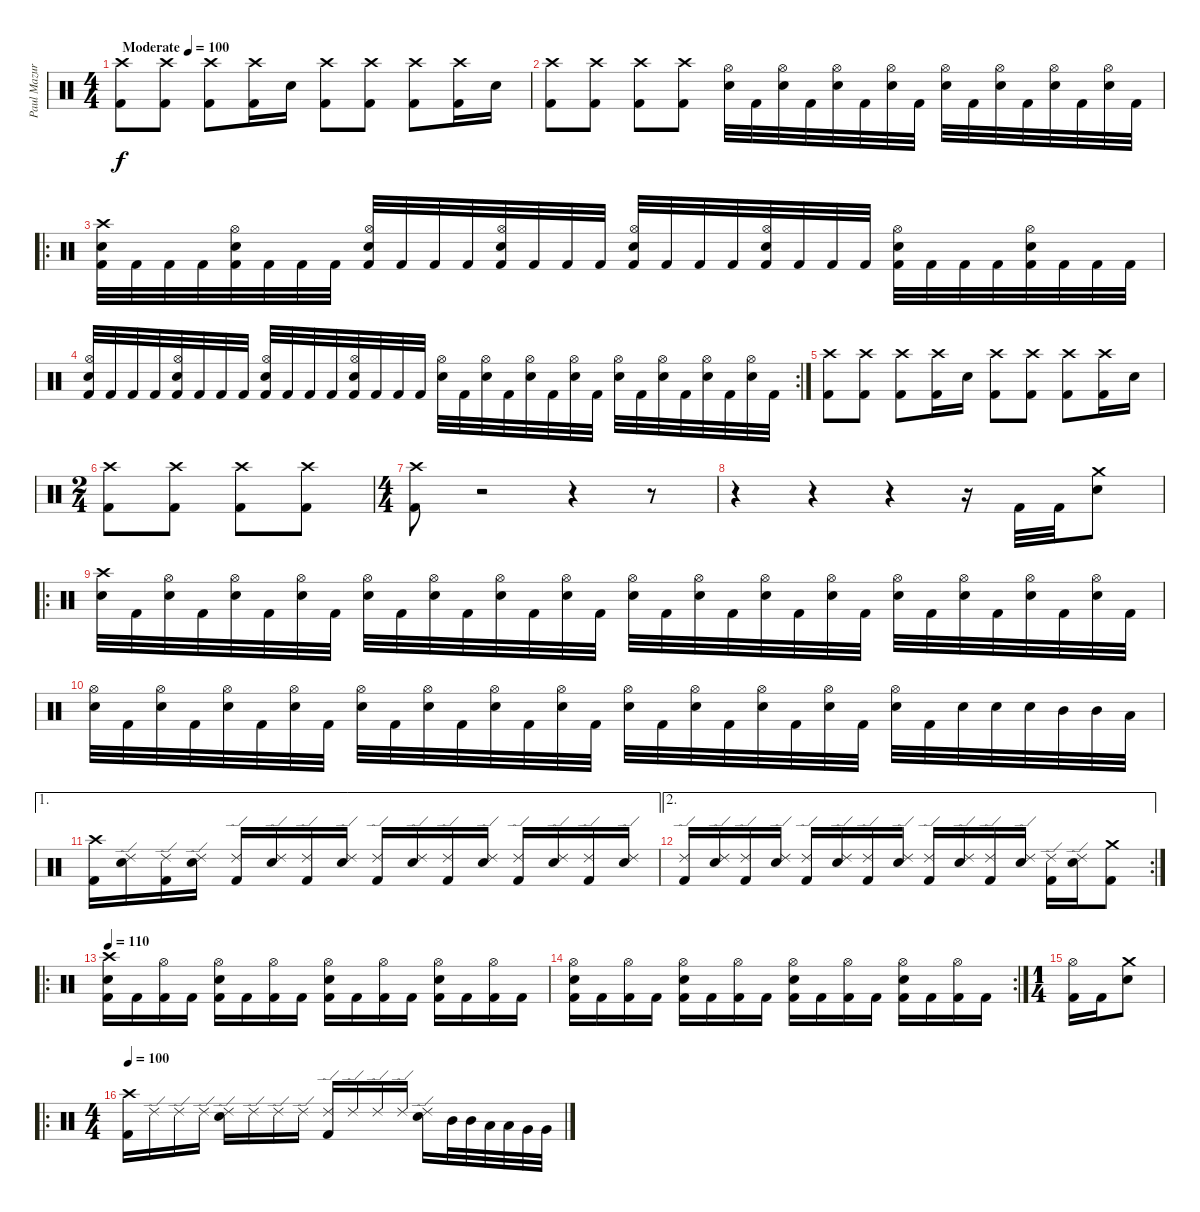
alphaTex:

\track ("Paul Mazurkievich" "Paul Mazur") {instrument percussion}
\staff {score}
\articulation defaults
\ts (4 4)
\tempo (100 "Moderate")
\clef neutral
\ks c
("Crash high (hit)" "Kick (hit) 2").8{dy f} ("Crash high (hit)" "Kick (hit) 2").8 ("Crash high (hit)" "Kick (hit) 2").8 ("Crash high (hit)" "Kick (hit) 2").16 "Electric Snare (hit)".16 ("Crash high (hit)" "Kick (hit) 2").8 ("Crash high (hit)" "Kick (hit) 2").8 ("Crash high (hit)" "Kick (hit) 2").8 ("Crash high (hit)" "Kick (hit) 2").16 "Electric Snare (hit)".16 |
("Crash high (hit)" "Kick (hit) 2").8 ("Crash high (hit)" "Kick (hit) 2").8 ("Crash high (hit)" "Kick (hit) 2").8 ("Crash high (hit)" "Kick (hit) 2").8 ("Electric Snare (hit)" "Hi-Hat (open)").32 "Kick (hit) 2".32 ("Electric Snare (hit)" "Hi-Hat (open)").32 "Kick (hit) 2".32 ("Electric Snare (hit)" "Hi-Hat (open)").32 "Kick (hit) 2".32 ("Electric Snare (hit)" "Hi-Hat (open)").32 "Kick (hit) 2".32 ("Electric Snare (hit)" "Hi-Hat (open)").32 "Kick (hit) 2".32 ("Electric Snare (hit)" "Hi-Hat (open)").32 "Kick (hit) 2".32 ("Electric Snare (hit)" "Hi-Hat (open)").32 "Kick (hit) 2".32 ("Electric Snare (hit)" "Hi-Hat (open)").32 "Kick (hit) 2".32 |
\ro
("Kick (hit) 2" "Crash high (hit)" "Snare (hit) 2").32 "Kick (hit) 2".32 "Kick (hit) 2".32 "Kick (hit) 2".32 ("Kick (hit) 2" "Snare (hit) 2" "Hi-Hat (open)").32 "Kick (hit) 2".32 "Kick (hit) 2".32 "Kick (hit) 2".32 ("Kick (hit) 2" "Snare (hit) 2" "Hi-Hat (open)").32 "Kick (hit) 2".32 "Kick (hit) 2".32 "Kick (hit) 2".32 ("Kick (hit) 2" "Snare (hit) 2" "Hi-Hat (open)").32 "Kick (hit) 2".32 "Kick (hit) 2".32 "Kick (hit) 2".32 ("Kick (hit) 2" "Snare (hit) 2" "Hi-Hat (open)").32 "Kick (hit) 2".32 "Kick (hit) 2".32 "Kick (hit) 2".32 ("Kick (hit) 2" "Snare (hit) 2" "Hi-Hat (open)").32 "Kick (hit) 2".32 "Kick (hit) 2".32 "Kick (hit) 2".32 ("Kick (hit) 2" "Electric Snare (hit)" "Hi-Hat (open)").32 "Kick (hit) 2".32 "Kick (hit) 2".32 "Kick (hit) 2".32 ("Kick (hit) 2" "Electric Snare (hit)" "Hi-Hat (open)").32 "Kick (hit) 2".32 "Kick (hit) 2".32 "Kick (hit) 2".32 |
\rc 2
("Kick (hit) 2" "Hi-Hat (open)" "Snare (hit) 2").32 "Kick (hit) 2".32 "Kick (hit) 2".32 "Kick (hit) 2".32 ("Kick (hit) 2" "Snare (hit) 2" "Hi-Hat (open)").32 "Kick (hit) 2".32 "Kick (hit) 2".32 "Kick (hit) 2".32 ("Kick (hit) 2" "Snare (hit) 2" "Hi-Hat (open)").32 "Kick (hit) 2".32 "Kick (hit) 2".32 "Kick (hit) 2".32 ("Kick (hit) 2" "Snare (hit) 2" "Hi-Hat (open)").32 "Kick (hit) 2".32 "Kick (hit) 2".32 "Kick (hit) 2".32 ("Electric Snare (hit)" "Hi-Hat (open)").32 "Kick (hit) 2".32 ("Electric Snare (hit)" "Hi-Hat (open)").32 "Kick (hit) 2".32 ("Electric Snare (hit)" "Hi-Hat (open)").32 "Kick (hit) 2".32 ("Electric Snare (hit)" "Hi-Hat (open)").32 "Kick (hit) 2".32 ("Electric Snare (hit)" "Hi-Hat (open)").32 "Kick (hit) 2".32 ("Electric Snare (hit)" "Hi-Hat (open)").32 "Kick (hit) 2".32 ("Electric Snare (hit)" "Hi-Hat (open)").32 "Kick (hit) 2".32 ("Electric Snare (hit)" "Hi-Hat (open)").32 "Kick (hit) 2".32 |
("Crash high (hit)" "Kick (hit) 2").8 ("Crash high (hit)" "Kick (hit) 2").8 ("Crash high (hit)" "Kick (hit) 2").8 ("Crash high (hit)" "Kick (hit) 2").16 "Electric Snare (hit)".16 ("Crash high (hit)" "Kick (hit) 2").8 ("Crash high (hit)" "Kick (hit) 2").8 ("Crash high (hit)" "Kick (hit) 2").8 ("Crash high (hit)" "Kick (hit) 2").16 "Electric Snare (hit)".16 |
\ts (2 4)
("Crash high (hit)" "Kick (hit) 2").8 ("Crash high (hit)" "Kick (hit) 2").8 ("Crash high (hit)" "Kick (hit) 2").8 ("Crash high (hit)" "Kick (hit) 2").8 |
\ts (4 4)
("Kick (hit) 2" "Crash high (hit)").8 r.2 r.4 r.8 |
r.4 r.4 r.4 r.16 "Kick (hit) 2".32 "Kick (hit) 2".32 ("Electric Snare (hit)" "Crash medium (hit)").8 |
\ro
("Electric Snare (hit)" "Crash high (hit)").32 "Kick (hit) 2".32 ("Electric Snare (hit)" "Hi-Hat (open)").32 "Kick (hit) 2".32 ("Electric Snare (hit)" "Hi-Hat (open)").32 "Kick (hit) 2".32 ("Electric Snare (hit)" "Hi-Hat (open)").32 "Kick (hit) 2".32 ("Electric Snare (hit)" "Hi-Hat (open)").32 "Kick (hit) 2".32 ("Electric Snare (hit)" "Hi-Hat (open)").32 "Kick (hit) 2".32 ("Electric Snare (hit)" "Hi-Hat (open)").32 "Kick (hit) 2".32 ("Electric Snare (hit)" "Hi-Hat (open)").32 "Kick (hit) 2".32 ("Electric Snare (hit)" "Hi-Hat (open)").32 "Kick (hit) 2".32 ("Electric Snare (hit)" "Hi-Hat (open)").32 "Kick (hit) 2".32 ("Electric Snare (hit)" "Hi-Hat (open)").32 "Kick (hit) 2".32 ("Electric Snare (hit)" "Hi-Hat (open)").32 "Kick (hit) 2".32 ("Electric Snare (hit)" "Hi-Hat (open)").32 "Kick (hit) 2".32 ("Electric Snare (hit)" "Hi-Hat (open)").32 "Kick (hit) 2".32 ("Electric Snare (hit)" "Hi-Hat (open)").32 "Kick (hit) 2".32 ("Electric Snare (hit)" "Hi-Hat (open)").32 "Kick (hit) 2".32 |
("Electric Snare (hit)" "Hi-Hat (open)").32 "Kick (hit) 2".32 ("Electric Snare (hit)" "Hi-Hat (open)").32 "Kick (hit) 2".32 ("Electric Snare (hit)" "Hi-Hat (open)").32 "Kick (hit) 2".32 ("Electric Snare (hit)" "Hi-Hat (open)").32 "Kick (hit) 2".32 ("Electric Snare (hit)" "Hi-Hat (open)").32 "Kick (hit) 2".32 ("Electric Snare (hit)" "Hi-Hat (open)").32 "Kick (hit) 2".32 ("Electric Snare (hit)" "Hi-Hat (open)").32 "Kick (hit) 2".32 ("Electric Snare (hit)" "Hi-Hat (open)").32 "Kick (hit) 2".32 ("Electric Snare (hit)" "Hi-Hat (open)").32 "Kick (hit) 2".32 ("Electric Snare (hit)" "Hi-Hat (open)").32 "Kick (hit) 2".32 ("Electric Snare (hit)" "Hi-Hat (open)").32 "Kick (hit) 2".32 ("Electric Snare (hit)" "Hi-Hat (open)").32 "Kick (hit) 2".32 ("Electric Snare (hit)" "Hi-Hat (open)").32 "Kick (hit) 2".32 "Electric Snare (hit)".32 "Electric Snare (hit)".32 "Electric Snare (hit)".32 "Mid Tom (hit)".32 "Mid Tom (hit)".32 "Low Tom (hit)".32 |
\ae 1
("Kick (hit) 2" "Crash high (hit)").16 ("Electric Snare (hit)" "Ride (edge) 2").16 ("Kick (hit) 2" "Ride (edge) 2").16 ("Electric Snare (hit)" "Ride (edge) 2").16 ("Kick (hit) 2" "Ride (edge) 2").16 ("Electric Snare (hit)" "Ride (edge) 2").16 ("Kick (hit) 2" "Ride (edge) 2").16 ("Electric Snare (hit)" "Ride (edge) 2").16 ("Kick (hit) 2" "Ride (edge) 2").16 ("Electric Snare (hit)" "Ride (edge) 2").16 ("Kick (hit) 2" "Ride (edge) 2").16 ("Electric Snare (hit)" "Ride (edge) 2").16 ("Kick (hit) 2" "Ride (edge) 2").16 ("Electric Snare (hit)" "Ride (edge) 2").16 ("Kick (hit) 2" "Ride (edge) 2").16 ("Electric Snare (hit)" "Ride (edge) 2").16 |
\ae 2
\rc 2
("Kick (hit) 2" "Ride (edge) 2").16 ("Electric Snare (hit)" "Ride (edge) 2").16 ("Kick (hit) 2" "Ride (edge) 2").16 ("Electric Snare (hit)" "Ride (edge) 2").16 ("Kick (hit) 2" "Ride (edge) 2").16 ("Electric Snare (hit)" "Ride (edge) 2").16 ("Kick (hit) 2" "Ride (edge) 2").16 ("Electric Snare (hit)" "Ride (edge) 2").16 ("Kick (hit) 2" "Ride (edge) 2").16 ("Electric Snare (hit)" "Ride (edge) 2").16 ("Kick (hit) 2" "Ride (edge) 2").16 ("Electric Snare (hit)" "Ride (edge) 2").16 ("Kick (hit) 2" "Ride (edge) 2").16 ("Electric Snare (hit)" "Ride (edge) 2").16 ("Kick (hit) 2" "Crash medium (hit)").8 |
\ro
\tempo 110
("Kick (hit) 2" "Crash high (hit)" "Electric Snare (hit)").16 "Kick (hit) 2".16 ("Kick (hit) 2" "Hi-Hat (open)").16 "Kick (hit) 2".16 ("Kick (hit) 2" "Hi-Hat (open)" "Electric Snare (hit)").16 "Kick (hit) 2".16 ("Kick (hit) 2" "Hi-Hat (open)").16 "Kick (hit) 2".16 ("Kick (hit) 2" "Hi-Hat (open)" "Electric Snare (hit)").16 "Kick (hit) 2".16 ("Kick (hit) 2" "Hi-Hat (open)").16 "Kick (hit) 2".16 ("Kick (hit) 2" "Hi-Hat (open)" "Electric Snare (hit)").16 "Kick (hit) 2".16 ("Kick (hit) 2" "Hi-Hat (open)").16 "Kick (hit) 2".16 |
\rc 2
("Kick (hit) 2" "Hi-Hat (open)" "Electric Snare (hit)").16 "Kick (hit) 2".16 ("Kick (hit) 2" "Hi-Hat (open)").16 "Kick (hit) 2".16 ("Kick (hit) 2" "Hi-Hat (open)" "Electric Snare (hit)").16 "Kick (hit) 2".16 ("Kick (hit) 2" "Hi-Hat (open)").16 "Kick (hit) 2".16 ("Kick (hit) 2" "Hi-Hat (open)" "Electric Snare (hit)").16 "Kick (hit) 2".16 ("Kick (hit) 2" "Hi-Hat (open)").16 "Kick (hit) 2".16 ("Kick (hit) 2" "Hi-Hat (open)" "Electric Snare (hit)").16 "Kick (hit) 2".16 ("Kick (hit) 2" "Hi-Hat (open)").16 "Kick (hit) 2".16 |
\ts (1 4)
("Kick (hit) 2" "Hi-Hat (open)").16 "Kick (hit) 2".16 ("Electric Snare (hit)" "Crash medium (hit)").8 |
\ro
\ts (4 4)
\tempo 100
("Crash high (hit)" "Kick (hit) 2").16 "Ride (edge) 2".16 "Ride (edge) 2".16 "Ride (edge) 2".16 ("Ride (edge) 2" "Electric Snare (hit)").16 "Ride (edge) 2".16 "Ride (edge) 2".16 "Ride (edge) 2".16 ("Ride (edge) 2" "Kick (hit) 2").16 "Ride (edge) 2".16 "Ride (edge) 2".16 "Ride (edge) 2".16 ("Ride (edge) 2" "Electric Snare (hit)").16 "Mid Tom (hit)".32 "Mid Tom (hit)".32 "Low Tom (hit)".32 "Low Tom (hit)".32 "Very Low Tom (hit)".32 "Very Low Tom (hit)".32
